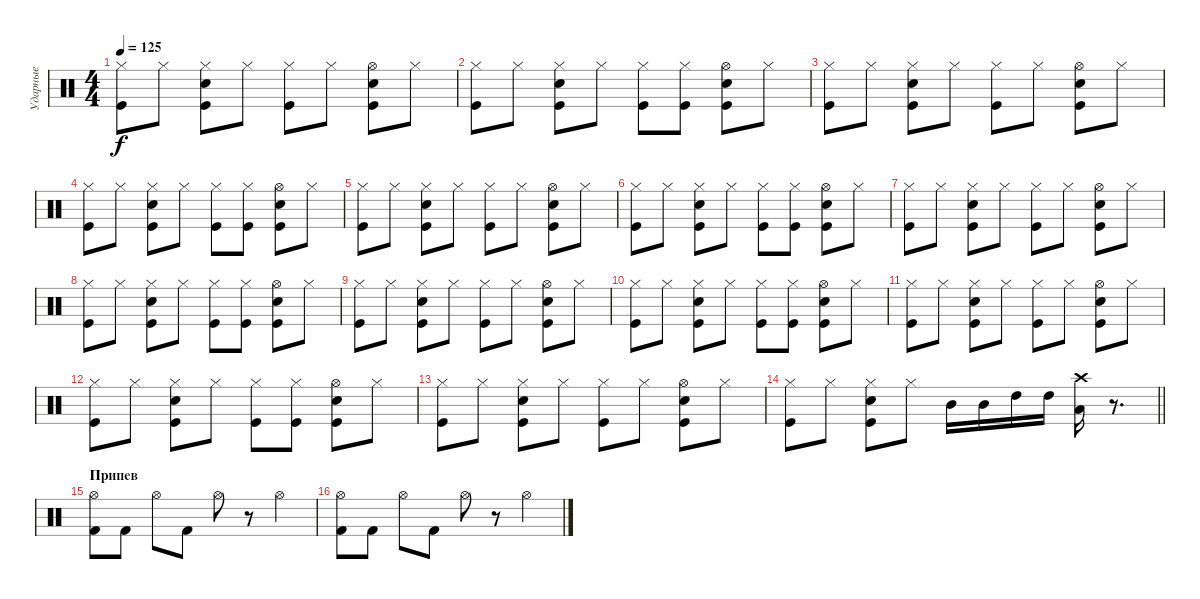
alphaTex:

\track ("Ударные" "Ударные") {instrument percussion}
\staff {score}
\articulation defaults
\ts (4 4)
\tempo 125
\clef neutral
\ks c
("Hi-Hat (closed)" "Kick (hit)").8{dy f} "Hi-Hat (closed)".8 ("Hi-Hat (closed)" "Kick (hit)" "Snare (hit) 2").8 "Hi-Hat (closed)".8 ("Hi-Hat (closed)" "Kick (hit)").8 "Hi-Hat (closed)".8 ("Hi-Hat (open)" "Kick (hit)" "Snare (hit) 2").8 "Hi-Hat (closed)".8 |
("Hi-Hat (closed)" "Kick (hit)").8 "Hi-Hat (closed)".8 ("Hi-Hat (closed)" "Kick (hit)" "Snare (hit) 2").8 "Hi-Hat (closed)".8 ("Hi-Hat (closed)" "Kick (hit)").8 ("Hi-Hat (closed)" "Kick (hit)").8 ("Hi-Hat (open)" "Kick (hit)" "Snare (hit) 2").8 "Hi-Hat (closed)".8 |
("Hi-Hat (closed)" "Kick (hit)").8 "Hi-Hat (closed)".8 ("Hi-Hat (closed)" "Kick (hit)" "Snare (hit) 2").8 "Hi-Hat (closed)".8 ("Hi-Hat (closed)" "Kick (hit)").8 "Hi-Hat (closed)".8 ("Hi-Hat (open)" "Kick (hit)" "Snare (hit) 2").8 "Hi-Hat (closed)".8 |
("Hi-Hat (closed)" "Kick (hit)").8 "Hi-Hat (closed)".8 ("Hi-Hat (closed)" "Kick (hit)" "Snare (hit) 2").8 "Hi-Hat (closed)".8 ("Hi-Hat (closed)" "Kick (hit)").8 ("Hi-Hat (closed)" "Kick (hit)").8 ("Hi-Hat (open)" "Kick (hit)" "Snare (hit) 2").8 "Hi-Hat (closed)".8 |
("Hi-Hat (closed)" "Kick (hit)").8 "Hi-Hat (closed)".8 ("Hi-Hat (closed)" "Kick (hit)" "Snare (hit) 2").8 "Hi-Hat (closed)".8 ("Hi-Hat (closed)" "Kick (hit)").8 "Hi-Hat (closed)".8 ("Hi-Hat (open)" "Kick (hit)" "Snare (hit) 2").8 "Hi-Hat (closed)".8 |
("Hi-Hat (closed)" "Kick (hit)").8 "Hi-Hat (closed)".8 ("Hi-Hat (closed)" "Kick (hit)" "Snare (hit) 2").8 "Hi-Hat (closed)".8 ("Hi-Hat (closed)" "Kick (hit)").8 ("Hi-Hat (closed)" "Kick (hit)").8 ("Hi-Hat (open)" "Kick (hit)" "Snare (hit) 2").8 "Hi-Hat (closed)".8 |
("Hi-Hat (closed)" "Kick (hit)").8 "Hi-Hat (closed)".8 ("Hi-Hat (closed)" "Kick (hit)" "Snare (hit) 2").8 "Hi-Hat (closed)".8 ("Hi-Hat (closed)" "Kick (hit)").8 "Hi-Hat (closed)".8 ("Hi-Hat (open)" "Kick (hit)" "Snare (hit) 2").8 "Hi-Hat (closed)".8 |
("Hi-Hat (closed)" "Kick (hit)").8 "Hi-Hat (closed)".8 ("Hi-Hat (closed)" "Kick (hit)" "Snare (hit) 2").8 "Hi-Hat (closed)".8 ("Hi-Hat (closed)" "Kick (hit)").8 ("Hi-Hat (closed)" "Kick (hit)").8 ("Hi-Hat (open)" "Kick (hit)" "Snare (hit) 2").8 "Hi-Hat (closed)".8 |
("Hi-Hat (closed)" "Kick (hit)").8 "Hi-Hat (closed)".8 ("Hi-Hat (closed)" "Kick (hit)" "Snare (hit) 2").8 "Hi-Hat (closed)".8 ("Hi-Hat (closed)" "Kick (hit)").8 "Hi-Hat (closed)".8 ("Hi-Hat (open)" "Kick (hit)" "Snare (hit) 2").8 "Hi-Hat (closed)".8 |
("Hi-Hat (closed)" "Kick (hit)").8 "Hi-Hat (closed)".8 ("Hi-Hat (closed)" "Kick (hit)" "Snare (hit) 2").8 "Hi-Hat (closed)".8 ("Hi-Hat (closed)" "Kick (hit)").8 ("Hi-Hat (closed)" "Kick (hit)").8 ("Hi-Hat (open)" "Kick (hit)" "Snare (hit) 2").8 "Hi-Hat (closed)".8 |
("Hi-Hat (closed)" "Kick (hit)").8 "Hi-Hat (closed)".8 ("Hi-Hat (closed)" "Kick (hit)" "Snare (hit) 2").8 "Hi-Hat (closed)".8 ("Hi-Hat (closed)" "Kick (hit)").8 "Hi-Hat (closed)".8 ("Hi-Hat (open)" "Kick (hit)" "Snare (hit) 2").8 "Hi-Hat (closed)".8 |
("Hi-Hat (closed)" "Kick (hit)").8 "Hi-Hat (closed)".8 ("Hi-Hat (closed)" "Kick (hit)" "Snare (hit) 2").8 "Hi-Hat (closed)".8 ("Hi-Hat (closed)" "Kick (hit)").8 ("Hi-Hat (closed)" "Kick (hit)").8 ("Hi-Hat (open)" "Kick (hit)" "Snare (hit) 2").8 "Hi-Hat (closed)".8 |
("Hi-Hat (closed)" "Kick (hit)").8 "Hi-Hat (closed)".8 ("Hi-Hat (closed)" "Kick (hit)" "Snare (hit) 2").8 "Hi-Hat (closed)".8 ("Hi-Hat (closed)" "Kick (hit)").8 "Hi-Hat (closed)".8 ("Hi-Hat (open)" "Kick (hit)" "Snare (hit) 2").8 "Hi-Hat (closed)".8 |
\barLineRight lightlight
("Hi-Hat (closed)" "Kick (hit)").8 "Hi-Hat (closed)".8 ("Hi-Hat (closed)" "Kick (hit)" "Snare (hit) 2").8 "Hi-Hat (closed)".8 "Mid Tom (hit)".16 "Mid Tom (hit)".16 "High Tom (hit)".16 "High Tom (hit)".16 ("Crash high (hit)" "Low Floor Tom (hit)").16 r.8{d} |
\section ("" "Припев")
("Kick (hit) 2" "Hi-Hat (open)").8 "Kick (hit) 2".8 "Hi-Hat (open)".8 "Kick (hit) 2".8 "Hi-Hat (open)".8 r.8 "Hi-Hat (open)".4 |
("Kick (hit) 2" "Hi-Hat (open)").8 "Kick (hit) 2".8 "Hi-Hat (open)".8 "Kick (hit) 2".8 "Hi-Hat (open)".8 r.8 "Hi-Hat (open)".4
